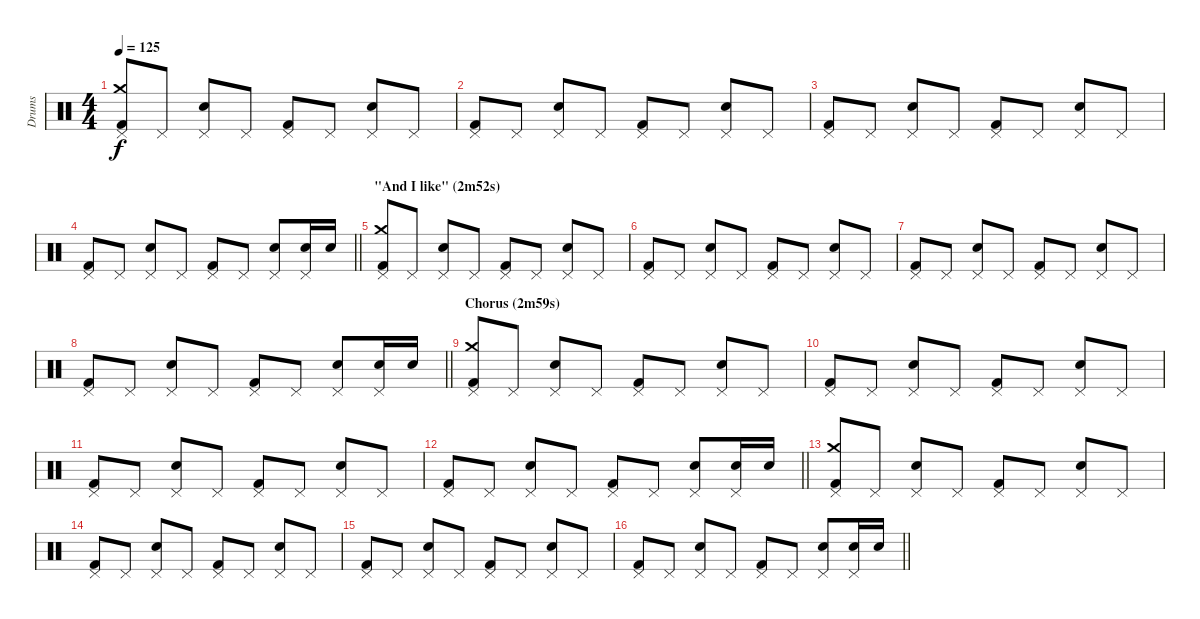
\track ("Drums" "Drums") {instrument percussion}
\staff {score}
\articulation defaults
\ts (4 4)
\tempo 125
\clef neutral
\ks c
("Pedal Hi-Hat (hit)" "Crash medium (hit)" "Kick (hit) 2").8{dy f} "Pedal Hi-Hat (hit)".8 ("Pedal Hi-Hat (hit)" "Electric Snare (hit)").8 "Pedal Hi-Hat (hit)".8 ("Pedal Hi-Hat (hit)" "Kick (hit) 2").8 "Pedal Hi-Hat (hit)".8 ("Pedal Hi-Hat (hit)" "Electric Snare (hit)").8 "Pedal Hi-Hat (hit)".8 |
("Pedal Hi-Hat (hit)" "Kick (hit) 2").8 "Pedal Hi-Hat (hit)".8 ("Pedal Hi-Hat (hit)" "Electric Snare (hit)").8 "Pedal Hi-Hat (hit)".8 ("Pedal Hi-Hat (hit)" "Kick (hit) 2").8 "Pedal Hi-Hat (hit)".8 ("Pedal Hi-Hat (hit)" "Electric Snare (hit)").8 "Pedal Hi-Hat (hit)".8 |
("Pedal Hi-Hat (hit)" "Kick (hit) 2").8 "Pedal Hi-Hat (hit)".8 ("Pedal Hi-Hat (hit)" "Electric Snare (hit)").8 "Pedal Hi-Hat (hit)".8 ("Pedal Hi-Hat (hit)" "Kick (hit) 2").8 "Pedal Hi-Hat (hit)".8 ("Pedal Hi-Hat (hit)" "Electric Snare (hit)").8 "Pedal Hi-Hat (hit)".8 |
\barLineRight lightlight
("Pedal Hi-Hat (hit)" "Kick (hit) 2").8 "Pedal Hi-Hat (hit)".8 ("Pedal Hi-Hat (hit)" "Electric Snare (hit)").8 "Pedal Hi-Hat (hit)".8 ("Pedal Hi-Hat (hit)" "Kick (hit) 2").8 "Pedal Hi-Hat (hit)".8 ("Pedal Hi-Hat (hit)" "Electric Snare (hit)").8 ("Pedal Hi-Hat (hit)" "Electric Snare (hit)").16 "Electric Snare (hit)".16 |
\section ("" "\"And I like\" (2m52s)")
("Pedal Hi-Hat (hit)" "Crash medium (hit)" "Kick (hit) 2").8 "Pedal Hi-Hat (hit)".8 ("Pedal Hi-Hat (hit)" "Electric Snare (hit)").8 "Pedal Hi-Hat (hit)".8 ("Pedal Hi-Hat (hit)" "Kick (hit) 2").8 "Pedal Hi-Hat (hit)".8 ("Pedal Hi-Hat (hit)" "Electric Snare (hit)").8 "Pedal Hi-Hat (hit)".8 |
("Pedal Hi-Hat (hit)" "Kick (hit) 2").8 "Pedal Hi-Hat (hit)".8 ("Pedal Hi-Hat (hit)" "Electric Snare (hit)").8 "Pedal Hi-Hat (hit)".8 ("Pedal Hi-Hat (hit)" "Kick (hit) 2").8 "Pedal Hi-Hat (hit)".8 ("Pedal Hi-Hat (hit)" "Electric Snare (hit)").8 "Pedal Hi-Hat (hit)".8 |
("Pedal Hi-Hat (hit)" "Kick (hit) 2").8 "Pedal Hi-Hat (hit)".8 ("Pedal Hi-Hat (hit)" "Electric Snare (hit)").8 "Pedal Hi-Hat (hit)".8 ("Pedal Hi-Hat (hit)" "Kick (hit) 2").8 "Pedal Hi-Hat (hit)".8 ("Pedal Hi-Hat (hit)" "Electric Snare (hit)").8 "Pedal Hi-Hat (hit)".8 |
\barLineRight lightlight
("Pedal Hi-Hat (hit)" "Kick (hit) 2").8 "Pedal Hi-Hat (hit)".8 ("Pedal Hi-Hat (hit)" "Electric Snare (hit)").8 "Pedal Hi-Hat (hit)".8 ("Pedal Hi-Hat (hit)" "Kick (hit) 2").8 "Pedal Hi-Hat (hit)".8 ("Pedal Hi-Hat (hit)" "Electric Snare (hit)").8 ("Pedal Hi-Hat (hit)" "Electric Snare (hit)").16 "Electric Snare (hit)".16 |
\section ("" "Chorus (2m59s)")
("Pedal Hi-Hat (hit)" "Crash medium (hit)" "Kick (hit) 2").8 "Pedal Hi-Hat (hit)".8 ("Pedal Hi-Hat (hit)" "Electric Snare (hit)").8 "Pedal Hi-Hat (hit)".8 ("Pedal Hi-Hat (hit)" "Kick (hit) 2").8 "Pedal Hi-Hat (hit)".8 ("Pedal Hi-Hat (hit)" "Electric Snare (hit)").8 "Pedal Hi-Hat (hit)".8 |
("Pedal Hi-Hat (hit)" "Kick (hit) 2").8 "Pedal Hi-Hat (hit)".8 ("Pedal Hi-Hat (hit)" "Electric Snare (hit)").8 "Pedal Hi-Hat (hit)".8 ("Pedal Hi-Hat (hit)" "Kick (hit) 2").8 "Pedal Hi-Hat (hit)".8 ("Pedal Hi-Hat (hit)" "Electric Snare (hit)").8 "Pedal Hi-Hat (hit)".8 |
("Pedal Hi-Hat (hit)" "Kick (hit) 2").8 "Pedal Hi-Hat (hit)".8 ("Pedal Hi-Hat (hit)" "Electric Snare (hit)").8 "Pedal Hi-Hat (hit)".8 ("Pedal Hi-Hat (hit)" "Kick (hit) 2").8 "Pedal Hi-Hat (hit)".8 ("Pedal Hi-Hat (hit)" "Electric Snare (hit)").8 "Pedal Hi-Hat (hit)".8 |
\barLineRight lightlight
("Pedal Hi-Hat (hit)" "Kick (hit) 2").8 "Pedal Hi-Hat (hit)".8 ("Pedal Hi-Hat (hit)" "Electric Snare (hit)").8 "Pedal Hi-Hat (hit)".8 ("Pedal Hi-Hat (hit)" "Kick (hit) 2").8 "Pedal Hi-Hat (hit)".8 ("Pedal Hi-Hat (hit)" "Electric Snare (hit)").8 ("Pedal Hi-Hat (hit)" "Electric Snare (hit)").16 "Electric Snare (hit)".16 |
("Pedal Hi-Hat (hit)" "Crash medium (hit)" "Kick (hit) 2").8 "Pedal Hi-Hat (hit)".8 ("Pedal Hi-Hat (hit)" "Electric Snare (hit)").8 "Pedal Hi-Hat (hit)".8 ("Pedal Hi-Hat (hit)" "Kick (hit) 2").8 "Pedal Hi-Hat (hit)".8 ("Pedal Hi-Hat (hit)" "Electric Snare (hit)").8 "Pedal Hi-Hat (hit)".8 |
("Pedal Hi-Hat (hit)" "Kick (hit) 2").8 "Pedal Hi-Hat (hit)".8 ("Pedal Hi-Hat (hit)" "Electric Snare (hit)").8 "Pedal Hi-Hat (hit)".8 ("Pedal Hi-Hat (hit)" "Kick (hit) 2").8 "Pedal Hi-Hat (hit)".8 ("Pedal Hi-Hat (hit)" "Electric Snare (hit)").8 "Pedal Hi-Hat (hit)".8 |
("Pedal Hi-Hat (hit)" "Kick (hit) 2").8 "Pedal Hi-Hat (hit)".8 ("Pedal Hi-Hat (hit)" "Electric Snare (hit)").8 "Pedal Hi-Hat (hit)".8 ("Pedal Hi-Hat (hit)" "Kick (hit) 2").8 "Pedal Hi-Hat (hit)".8 ("Pedal Hi-Hat (hit)" "Electric Snare (hit)").8 "Pedal Hi-Hat (hit)".8 |
\barLineRight lightlight
("Pedal Hi-Hat (hit)" "Kick (hit) 2").8 "Pedal Hi-Hat (hit)".8 ("Pedal Hi-Hat (hit)" "Electric Snare (hit)").8 "Pedal Hi-Hat (hit)".8 ("Pedal Hi-Hat (hit)" "Kick (hit) 2").8 "Pedal Hi-Hat (hit)".8 ("Pedal Hi-Hat (hit)" "Electric Snare (hit)").8 ("Pedal Hi-Hat (hit)" "Electric Snare (hit)").16 "Electric Snare (hit)".16
